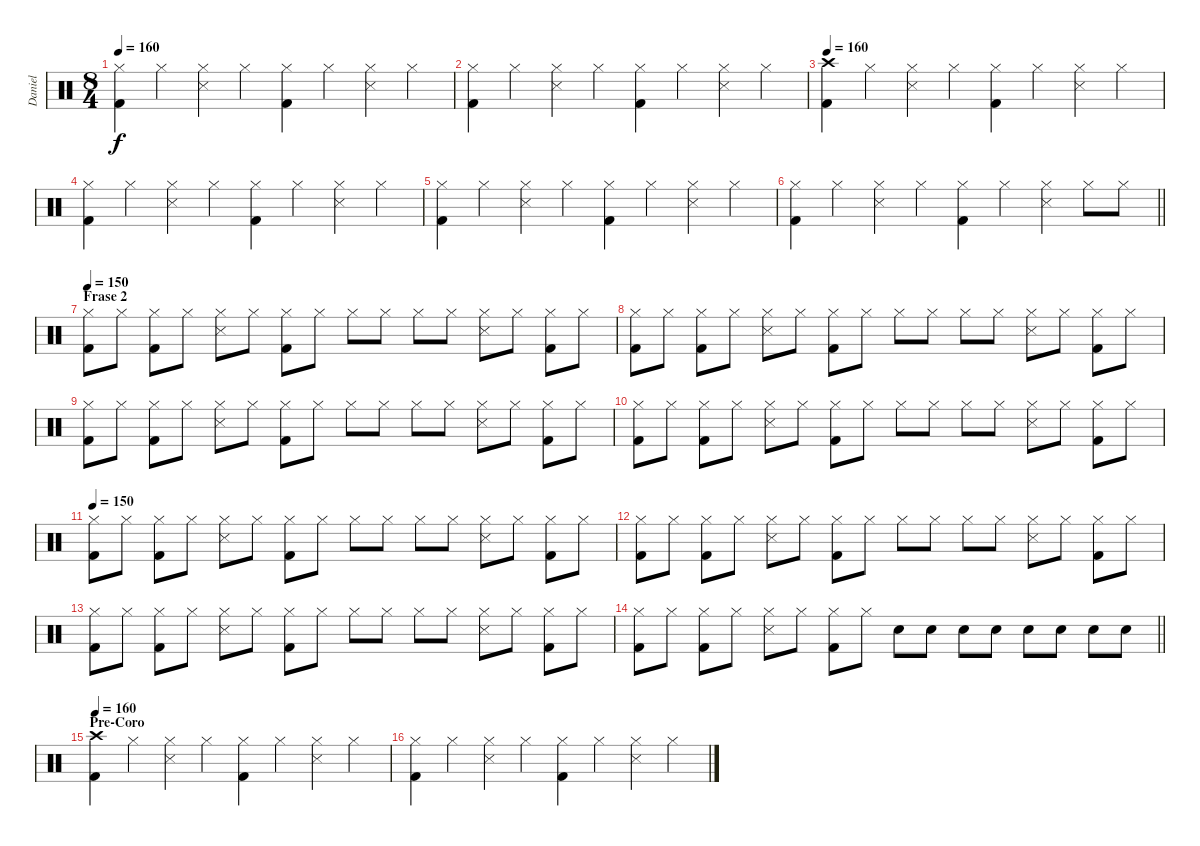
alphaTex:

\track ("Daniel" "Daniel") {instrument percussion}
\staff {score}
\articulation defaults
\ts (8 4)
\tempo 160
\clef neutral
\ks c
("Hi-Hat (closed)" "Kick (hit) 2").4{dy f} "Hi-Hat (closed)".4 ("Hi-Hat (closed)" "Snare (side stick) 3").4 "Hi-Hat (closed)".4 ("Hi-Hat (closed)" "Kick (hit) 2").4 "Hi-Hat (closed)".4 ("Hi-Hat (closed)" "Snare (side stick) 3").4 "Hi-Hat (closed)".4 |
("Hi-Hat (closed)" "Kick (hit) 2").4 "Hi-Hat (closed)".4 ("Hi-Hat (closed)" "Snare (side stick) 3").4 "Hi-Hat (closed)".4 ("Hi-Hat (closed)" "Kick (hit) 2").4 "Hi-Hat (closed)".4 ("Hi-Hat (closed)" "Snare (side stick) 3").4 "Hi-Hat (closed)".4 |
\tempo 160
("Crash high (hit)" "Kick (hit) 2").4 "Hi-Hat (closed)".4 ("Hi-Hat (closed)" "Snare (side stick) 3").4 "Hi-Hat (closed)".4 ("Hi-Hat (closed)" "Kick (hit) 2").4 "Hi-Hat (closed)".4 ("Hi-Hat (closed)" "Snare (side stick) 3").4 "Hi-Hat (closed)".4 |
("Hi-Hat (closed)" "Kick (hit) 2").4 "Hi-Hat (closed)".4 ("Hi-Hat (closed)" "Snare (side stick) 3").4 "Hi-Hat (closed)".4 ("Hi-Hat (closed)" "Kick (hit) 2").4 "Hi-Hat (closed)".4 ("Hi-Hat (closed)" "Snare (side stick) 3").4 "Hi-Hat (closed)".4 |
("Hi-Hat (closed)" "Kick (hit) 2").4 "Hi-Hat (closed)".4 ("Hi-Hat (closed)" "Snare (side stick) 3").4 "Hi-Hat (closed)".4 ("Hi-Hat (closed)" "Kick (hit) 2").4 "Hi-Hat (closed)".4 ("Hi-Hat (closed)" "Snare (side stick) 3").4 "Hi-Hat (closed)".4 |
\barLineRight lightlight
("Hi-Hat (closed)" "Kick (hit) 2").4 "Hi-Hat (closed)".4 ("Hi-Hat (closed)" "Snare (side stick) 3").4 "Hi-Hat (closed)".4 ("Hi-Hat (closed)" "Kick (hit) 2").4 "Hi-Hat (closed)".4 ("Hi-Hat (closed)" "Snare (side stick) 3").4 "Hi-Hat (closed)".8 "Hi-Hat (closed)".8 |
\section ("" "Frase 2")
\tempo 150
("Hi-Hat (closed)" "Kick (hit) 2").8 "Hi-Hat (closed)".8 ("Hi-Hat (closed)" "Kick (hit) 2").8 "Hi-Hat (closed)".8 ("Hi-Hat (closed)" "Snare (side stick) 3").8 "Hi-Hat (closed)".8 ("Hi-Hat (closed)" "Kick (hit) 2").8 "Hi-Hat (closed)".8 "Hi-Hat (closed)".8 "Hi-Hat (closed)".8 "Hi-Hat (closed)".8 "Hi-Hat (closed)".8 ("Hi-Hat (closed)" "Snare (side stick) 3").8 "Hi-Hat (closed)".8 ("Hi-Hat (closed)" "Kick (hit) 2").8 "Hi-Hat (closed)".8 |
("Hi-Hat (closed)" "Kick (hit) 2").8 "Hi-Hat (closed)".8 ("Hi-Hat (closed)" "Kick (hit) 2").8 "Hi-Hat (closed)".8 ("Hi-Hat (closed)" "Snare (side stick) 3").8 "Hi-Hat (closed)".8 ("Hi-Hat (closed)" "Kick (hit) 2").8 "Hi-Hat (closed)".8 "Hi-Hat (closed)".8 "Hi-Hat (closed)".8 "Hi-Hat (closed)".8 "Hi-Hat (closed)".8 ("Hi-Hat (closed)" "Snare (side stick) 3").8 "Hi-Hat (closed)".8 ("Hi-Hat (closed)" "Kick (hit) 2").8 "Hi-Hat (closed)".8 |
("Hi-Hat (closed)" "Kick (hit) 2").8 "Hi-Hat (closed)".8 ("Hi-Hat (closed)" "Kick (hit) 2").8 "Hi-Hat (closed)".8 ("Hi-Hat (closed)" "Snare (side stick) 3").8 "Hi-Hat (closed)".8 ("Hi-Hat (closed)" "Kick (hit) 2").8 "Hi-Hat (closed)".8 "Hi-Hat (closed)".8 "Hi-Hat (closed)".8 "Hi-Hat (closed)".8 "Hi-Hat (closed)".8 ("Hi-Hat (closed)" "Snare (side stick) 3").8 "Hi-Hat (closed)".8 ("Hi-Hat (closed)" "Kick (hit) 2").8 "Hi-Hat (closed)".8 |
("Hi-Hat (closed)" "Kick (hit) 2").8 "Hi-Hat (closed)".8 ("Hi-Hat (closed)" "Kick (hit) 2").8 "Hi-Hat (closed)".8 ("Hi-Hat (closed)" "Snare (side stick) 3").8 "Hi-Hat (closed)".8 ("Hi-Hat (closed)" "Kick (hit) 2").8 "Hi-Hat (closed)".8 "Hi-Hat (closed)".8 "Hi-Hat (closed)".8 "Hi-Hat (closed)".8 "Hi-Hat (closed)".8 ("Hi-Hat (closed)" "Snare (side stick) 3").8 "Hi-Hat (closed)".8 ("Hi-Hat (closed)" "Kick (hit) 2").8 "Hi-Hat (closed)".8 |
\tempo 150
("Hi-Hat (closed)" "Kick (hit) 2").8 "Hi-Hat (closed)".8 ("Hi-Hat (closed)" "Kick (hit) 2").8 "Hi-Hat (closed)".8 ("Hi-Hat (closed)" "Snare (side stick) 3").8 "Hi-Hat (closed)".8 ("Hi-Hat (closed)" "Kick (hit) 2").8 "Hi-Hat (closed)".8 "Hi-Hat (closed)".8 "Hi-Hat (closed)".8 "Hi-Hat (closed)".8 "Hi-Hat (closed)".8 ("Hi-Hat (closed)" "Snare (side stick) 3").8 "Hi-Hat (closed)".8 ("Hi-Hat (closed)" "Kick (hit) 2").8 "Hi-Hat (closed)".8 |
("Hi-Hat (closed)" "Kick (hit) 2").8 "Hi-Hat (closed)".8 ("Hi-Hat (closed)" "Kick (hit) 2").8 "Hi-Hat (closed)".8 ("Hi-Hat (closed)" "Snare (side stick) 3").8 "Hi-Hat (closed)".8 ("Hi-Hat (closed)" "Kick (hit) 2").8 "Hi-Hat (closed)".8 "Hi-Hat (closed)".8 "Hi-Hat (closed)".8 "Hi-Hat (closed)".8 "Hi-Hat (closed)".8 ("Hi-Hat (closed)" "Snare (side stick) 3").8 "Hi-Hat (closed)".8 ("Hi-Hat (closed)" "Kick (hit) 2").8 "Hi-Hat (closed)".8 |
("Hi-Hat (closed)" "Kick (hit) 2").8 "Hi-Hat (closed)".8 ("Hi-Hat (closed)" "Kick (hit) 2").8 "Hi-Hat (closed)".8 ("Hi-Hat (closed)" "Snare (side stick) 3").8 "Hi-Hat (closed)".8 ("Hi-Hat (closed)" "Kick (hit) 2").8 "Hi-Hat (closed)".8 "Hi-Hat (closed)".8 "Hi-Hat (closed)".8 "Hi-Hat (closed)".8 "Hi-Hat (closed)".8 ("Hi-Hat (closed)" "Snare (side stick) 3").8 "Hi-Hat (closed)".8 ("Hi-Hat (closed)" "Kick (hit) 2").8 "Hi-Hat (closed)".8 |
\barLineRight lightlight
("Hi-Hat (closed)" "Kick (hit) 2").8 "Hi-Hat (closed)".8 ("Hi-Hat (closed)" "Kick (hit) 2").8 "Hi-Hat (closed)".8 ("Hi-Hat (closed)" "Snare (side stick) 3").8 "Hi-Hat (closed)".8 ("Hi-Hat (closed)" "Kick (hit) 2").8 "Hi-Hat (closed)".8 "Snare (hit) 2".8 "Snare (hit) 2".8 "Snare (hit) 2".8 "Snare (hit) 2".8 "Snare (hit) 2".8 "Snare (hit) 2".8 "Snare (hit) 2".8 "Snare (hit) 2".8 |
\section ("" "Pre-Coro")
\tempo 160
("Crash high (hit)" "Kick (hit) 2").4 "Hi-Hat (closed)".4 ("Hi-Hat (closed)" "Snare (side stick) 3").4 "Hi-Hat (closed)".4 ("Hi-Hat (closed)" "Kick (hit) 2").4 "Hi-Hat (closed)".4 ("Hi-Hat (closed)" "Snare (side stick) 3").4 "Hi-Hat (closed)".4 |
("Hi-Hat (closed)" "Kick (hit) 2").4 "Hi-Hat (closed)".4 ("Hi-Hat (closed)" "Snare (side stick) 3").4 "Hi-Hat (closed)".4 ("Hi-Hat (closed)" "Kick (hit) 2").4 "Hi-Hat (closed)".4 ("Hi-Hat (closed)" "Snare (side stick) 3").4 "Hi-Hat (closed)".4
